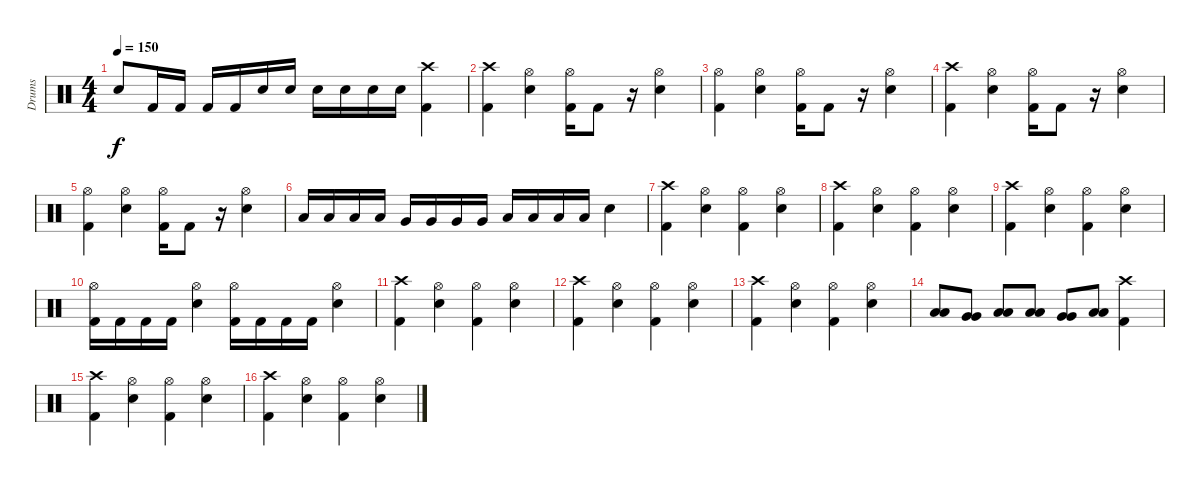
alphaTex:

\track ("Drums" "Drums") {instrument percussion}
\staff {score}
\articulation defaults
\ts (4 4)
\tempo 150
\clef neutral
\ks c "Snare (hit) 2".8{dy f} "Kick (hit) 2".16 "Kick (hit) 2".16 "Kick (hit) 2".16 "Kick (hit) 2".16 "Snare (hit) 2".16 "Snare (hit) 2".16 "Snare (hit) 2".16 "Snare (hit) 2".16 "Snare (hit) 2".16 "Snare (hit) 2".16
("Crash high (hit)" "Kick (hit) 2").4 |
("Crash high (hit)" "Kick (hit) 2").4 ("Hi-Hat (open)" "Snare (hit) 2").4 ("Hi-Hat (open)" "Kick (hit) 2").16 "Kick (hit) 2".8 r.16 ("Hi-Hat (open)" "Snare (hit) 2").4 |
("Hi-Hat (open)" "Kick (hit) 2").4 ("Hi-Hat (open)" "Snare (hit) 2").4 ("Hi-Hat (open)" "Kick (hit) 2").16 "Kick (hit) 2".8 r.16 ("Hi-Hat (open)" "Snare (hit) 2").4 |
("Crash high (hit)" "Kick (hit) 2").4 ("Hi-Hat (open)" "Snare (hit) 2").4 ("Hi-Hat (open)" "Kick (hit) 2").16 "Kick (hit) 2".8 r.16 ("Hi-Hat (open)" "Snare (hit) 2").4 |
("Hi-Hat (open)" "Kick (hit) 2").4 ("Hi-Hat (open)" "Snare (hit) 2").4 ("Hi-Hat (open)" "Kick (hit) 2").16 "Kick (hit) 2".8 r.16 ("Hi-Hat (open)" "Snare (hit) 2").4 |
"Low Tom (hit)".16 "Low Tom (hit)".16 "Low Tom (hit)".16 "Low Tom (hit)".16 "Very Low Tom (hit)".16 "Very Low Tom (hit)".16 "Very Low Tom (hit)".16 "Very Low Tom (hit)".16 "Low Floor Tom (hit)".16 "Low Floor Tom (hit)".16 "Low Floor Tom (hit)".16 "Low Floor Tom (hit)".16 "Snare (hit) 2".4 |
("Crash high (hit)" "Kick (hit) 2").4 ("Hi-Hat (open)" "Snare (hit) 2").4 ("Hi-Hat (open)" "Kick (hit) 2").4 ("Hi-Hat (open)" "Snare (hit) 2").4 |
("Crash high (hit)" "Kick (hit) 2").4 ("Hi-Hat (open)" "Snare (hit) 2").4 ("Hi-Hat (open)" "Kick (hit) 2").4 ("Hi-Hat (open)" "Snare (hit) 2").4 |
("Crash high (hit)" "Kick (hit) 2").4 ("Hi-Hat (open)" "Snare (hit) 2").4 ("Hi-Hat (open)" "Kick (hit) 2").4 ("Hi-Hat (open)" "Snare (hit) 2").4 |
("Hi-Hat (open)" "Kick (hit) 2").16 "Kick (hit) 2".16 "Kick (hit) 2".16 "Kick (hit) 2".16 ("Hi-Hat (open)" "Snare (hit) 2").4 ("Hi-Hat (open)" "Kick (hit) 2").16 "Kick (hit) 2".16 "Kick (hit) 2".16 "Kick (hit) 2".16 ("Hi-Hat (open)" "Snare (hit) 2").4 |
("Crash high (hit)" "Kick (hit) 2").4 ("Hi-Hat (open)" "Snare (hit) 2").4 ("Hi-Hat (open)" "Kick (hit) 2").4 ("Hi-Hat (open)" "Snare (hit) 2").4 |
("Crash high (hit)" "Kick (hit) 2").4 ("Hi-Hat (open)" "Snare (hit) 2").4 ("Hi-Hat (open)" "Kick (hit) 2").4 ("Hi-Hat (open)" "Snare (hit) 2").4 |
("Crash high (hit)" "Kick (hit) 2").4 ("Hi-Hat (open)" "Snare (hit) 2").4 ("Hi-Hat (open)" "Kick (hit) 2").4 ("Hi-Hat (open)" "Snare (hit) 2").4 |
("Low Tom (hit)" "Low Tom (hit)").8 ("Very Low Tom (hit)" "Very Low Tom (hit)").8 ("Low Floor Tom (hit)" "Low Floor Tom (hit)").8 ("Low Tom (hit)" "Low Tom (hit)").8 ("Very Low Tom (hit)" "Very Low Tom (hit)").8 ("Low Floor Tom (hit)" "Low Floor Tom (hit)").8 ("Crash high (hit)" "Kick (hit) 2").4 |
("Crash high (hit)" "Kick (hit) 2").4 ("Hi-Hat (open)" "Snare (hit) 2").4 ("Hi-Hat (open)" "Kick (hit) 2").4 ("Hi-Hat (open)" "Snare (hit) 2").4 |
("Crash high (hit)" "Kick (hit) 2").4 ("Hi-Hat (open)" "Snare (hit) 2").4 ("Hi-Hat (open)" "Kick (hit) 2").4 ("Hi-Hat (open)" "Snare (hit) 2").4
